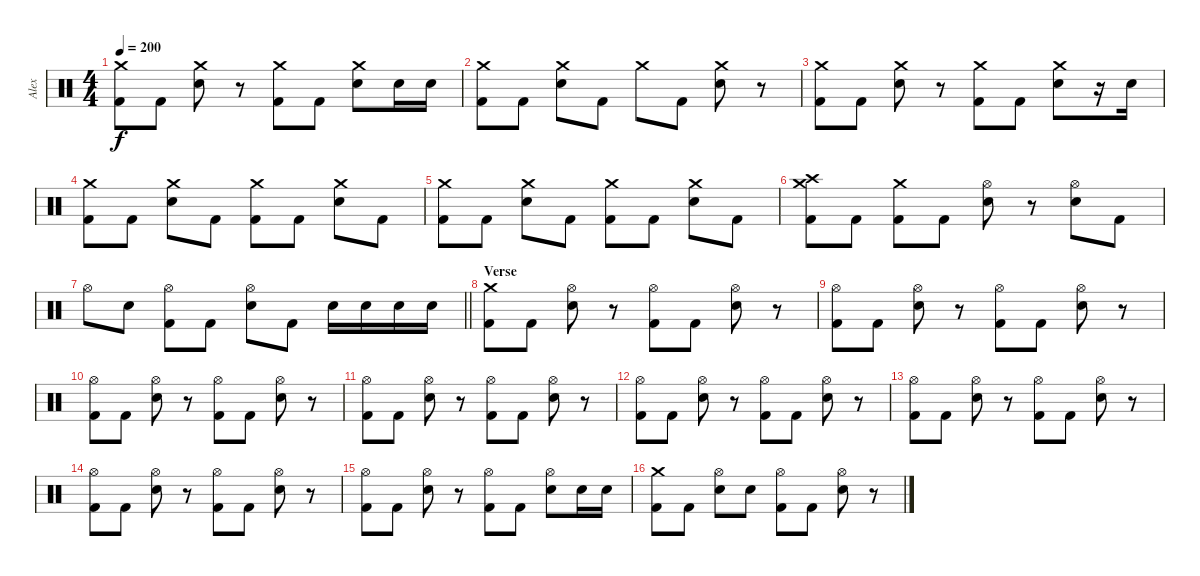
\track ("Alex" "Alex") {instrument percussion}
\staff {score}
\articulation defaults
\ts (4 4)
\tempo 200
\clef neutral
\ks c
("Crash medium (hit)" "Kick (hit) 2").8{dy f} "Kick (hit) 2".8 ("Crash medium (hit)" "Electric Snare (hit)").8 r.8 ("Crash medium (hit)" "Kick (hit) 2").8 "Kick (hit) 2".8 ("Crash medium (hit)" "Electric Snare (hit)").8 "Electric Snare (hit)".16 "Electric Snare (hit)".16 |
("Crash medium (hit)" "Kick (hit) 2").8 "Kick (hit) 2".8 ("Crash medium (hit)" "Electric Snare (hit)").8 "Kick (hit) 2".8 "Crash medium (hit)".8 "Kick (hit) 2".8 ("Crash medium (hit)" "Electric Snare (hit)").8 r.8 |
("Crash medium (hit)" "Kick (hit) 2").8 "Kick (hit) 2".8 ("Crash medium (hit)" "Electric Snare (hit)").8 r.8 ("Crash medium (hit)" "Kick (hit) 2").8 "Kick (hit) 2".8 ("Crash medium (hit)" "Electric Snare (hit)").8 r.16 "Electric Snare (hit)".16 |
("Crash medium (hit)" "Kick (hit) 2").8 "Kick (hit) 2".8 ("Crash medium (hit)" "Electric Snare (hit)").8 "Kick (hit) 2".8 ("Crash medium (hit)" "Kick (hit) 2").8 "Kick (hit) 2".8 ("Crash medium (hit)" "Electric Snare (hit)").8 "Kick (hit) 2".8 |
("Crash medium (hit)" "Kick (hit) 2").8 "Kick (hit) 2".8 ("Crash medium (hit)" "Electric Snare (hit)").8 "Kick (hit) 2".8 ("Crash medium (hit)" "Kick (hit) 2").8 "Kick (hit) 2".8 ("Crash medium (hit)" "Electric Snare (hit)").8 "Kick (hit) 2".8 |
("Crash medium (hit)" "Crash high (hit)" "Kick (hit) 2").8 "Kick (hit) 2".8 ("Crash medium (hit)" "Kick (hit) 2").8 "Kick (hit) 2".8 ("Hi-Hat (open)" "Electric Snare (hit)").8 r.8 ("Hi-Hat (open)" "Electric Snare (hit)").8 "Kick (hit) 2".8 |
\barLineRight lightlight "Hi-Hat (open)".8 "Electric Snare (hit)".8
("Hi-Hat (open)" "Kick (hit) 2").8 "Kick (hit) 2".8 ("Hi-Hat (open)" "Electric Snare (hit)").8 "Kick (hit) 2".8 "Electric Snare (hit)".16 "Electric Snare (hit)".16 "Electric Snare (hit)".16 "Electric Snare (hit)".16 |
\section ("" "Verse")
("Crash medium (hit)" "Kick (hit) 2").8 "Kick (hit) 2".8 ("Hi-Hat (open)" "Electric Snare (hit)").8 r.8 ("Hi-Hat (open)" "Kick (hit) 2").8 "Kick (hit) 2".8 ("Hi-Hat (open)" "Electric Snare (hit)").8 r.8 |
("Hi-Hat (open)" "Kick (hit) 2").8 "Kick (hit) 2".8 ("Hi-Hat (open)" "Electric Snare (hit)").8 r.8 ("Hi-Hat (open)" "Kick (hit) 2").8 "Kick (hit) 2".8 ("Hi-Hat (open)" "Electric Snare (hit)").8 r.8 |
("Hi-Hat (open)" "Kick (hit) 2").8 "Kick (hit) 2".8 ("Hi-Hat (open)" "Electric Snare (hit)").8 r.8 ("Hi-Hat (open)" "Kick (hit) 2").8 "Kick (hit) 2".8 ("Hi-Hat (open)" "Electric Snare (hit)").8 r.8 |
("Hi-Hat (open)" "Kick (hit) 2").8 "Kick (hit) 2".8 ("Hi-Hat (open)" "Electric Snare (hit)").8 r.8 ("Hi-Hat (open)" "Kick (hit) 2").8 "Kick (hit) 2".8 ("Hi-Hat (open)" "Electric Snare (hit)").8 r.8 |
("Hi-Hat (open)" "Kick (hit) 2").8 "Kick (hit) 2".8 ("Hi-Hat (open)" "Electric Snare (hit)").8 r.8 ("Hi-Hat (open)" "Kick (hit) 2").8 "Kick (hit) 2".8 ("Hi-Hat (open)" "Electric Snare (hit)").8 r.8 |
("Hi-Hat (open)" "Kick (hit) 2").8 "Kick (hit) 2".8 ("Hi-Hat (open)" "Electric Snare (hit)").8 r.8 ("Hi-Hat (open)" "Kick (hit) 2").8 "Kick (hit) 2".8 ("Hi-Hat (open)" "Electric Snare (hit)").8 r.8 |
("Hi-Hat (open)" "Kick (hit) 2").8 "Kick (hit) 2".8 ("Hi-Hat (open)" "Electric Snare (hit)").8 r.8 ("Hi-Hat (open)" "Kick (hit) 2").8 "Kick (hit) 2".8 ("Hi-Hat (open)" "Electric Snare (hit)").8 r.8 |
("Hi-Hat (open)" "Kick (hit) 2").8 "Kick (hit) 2".8 ("Hi-Hat (open)" "Electric Snare (hit)").8 r.8 ("Hi-Hat (open)" "Kick (hit) 2").8 "Kick (hit) 2".8 ("Hi-Hat (open)" "Electric Snare (hit)").8 "Electric Snare (hit)".16 "Electric Snare (hit)".16 |
("Crash medium (hit)" "Kick (hit) 2").8 "Kick (hit) 2".8 ("Hi-Hat (open)" "Electric Snare (hit)").8 "Electric Snare (hit)".8 ("Hi-Hat (open)" "Kick (hit) 2").8 "Kick (hit) 2".8 ("Hi-Hat (open)" "Electric Snare (hit)").8 r.8
